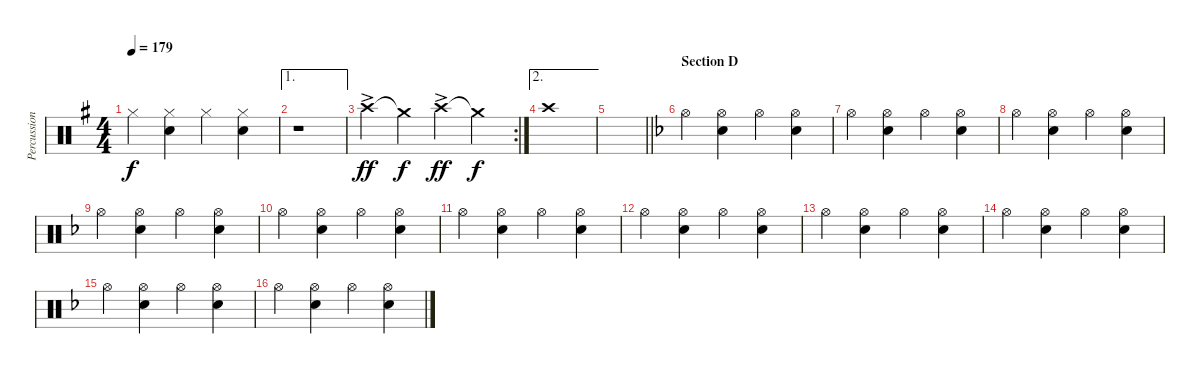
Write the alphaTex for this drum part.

\track ("Percussion 01" "Percussion") {instrument percussion}
\staff {score}
\articulation defaults
\ts (4 4)
\tempo 179
\clef neutral
\ks g "Hi-Hat (closed)".4{dy f}
("Hi-Hat (closed)" "Snare (hit) 2").4 "Hi-Hat (closed)".4 ("Hi-Hat (closed)" "Snare (hit) 2").4 |
\ae 1
r.1 |
\rc 2 "Crash high (hit)"{ac}.4{dy ff} "Crash medium (hit)"{t}.4{dy f} "Crash high (hit)"{ac}.4{dy ff} "Crash medium (hit)"{t}.4{dy f}
|
\ae 2 "Crash high (hit)".1
|
\barLineRight lightlight
|
\section ("" "Section D")
\ks dminor "Hi-Hat (open)".4
("Hi-Hat (open)" "Snare (hit) 2").4 "Hi-Hat (open)".4 ("Hi-Hat (open)" "Snare (hit) 2").4 |
"Hi-Hat (open)".4 ("Hi-Hat (open)" "Snare (hit) 2").4 "Hi-Hat (open)".4 ("Hi-Hat (open)" "Snare (hit) 2").4 |
"Hi-Hat (open)".4 ("Hi-Hat (open)" "Snare (hit) 2").4 "Hi-Hat (open)".4 ("Hi-Hat (open)" "Snare (hit) 2").4 |
"Hi-Hat (open)".4 ("Hi-Hat (open)" "Snare (hit) 2").4 "Hi-Hat (open)".4 ("Hi-Hat (open)" "Snare (hit) 2").4 |
"Hi-Hat (open)".4 ("Hi-Hat (open)" "Snare (hit) 2").4 "Hi-Hat (open)".4 ("Hi-Hat (open)" "Snare (hit) 2").4 |
"Hi-Hat (open)".4 ("Hi-Hat (open)" "Snare (hit) 2").4 "Hi-Hat (open)".4 ("Hi-Hat (open)" "Snare (hit) 2").4 |
"Hi-Hat (open)".4 ("Hi-Hat (open)" "Snare (hit) 2").4 "Hi-Hat (open)".4 ("Hi-Hat (open)" "Snare (hit) 2").4 |
"Hi-Hat (open)".4 ("Hi-Hat (open)" "Snare (hit) 2").4 "Hi-Hat (open)".4 ("Hi-Hat (open)" "Snare (hit) 2").4 |
"Hi-Hat (open)".4 ("Hi-Hat (open)" "Snare (hit) 2").4 "Hi-Hat (open)".4 ("Hi-Hat (open)" "Snare (hit) 2").4 |
"Hi-Hat (open)".4 ("Hi-Hat (open)" "Snare (hit) 2").4 "Hi-Hat (open)".4 ("Hi-Hat (open)" "Snare (hit) 2").4 |
"Hi-Hat (open)".4 ("Hi-Hat (open)" "Snare (hit) 2").4 "Hi-Hat (open)".4 ("Hi-Hat (open)" "Snare (hit) 2").4
